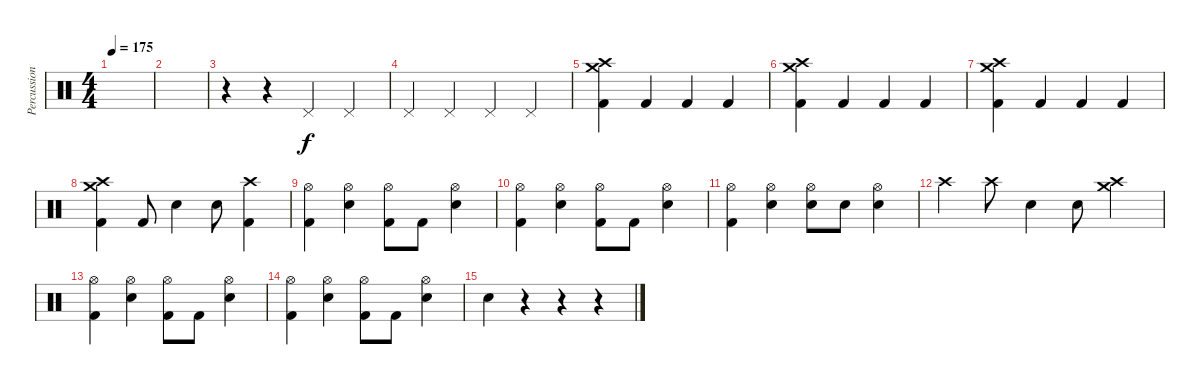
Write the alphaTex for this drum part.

\track ("Percussion" "Percussion") {instrument percussion}
\staff {score}
\articulation defaults
\ts (4 4)
\tempo 175
\clef neutral
\ks c
|
|
r.4 r.4 "Pedal Hi-Hat (hit)".4 "Pedal Hi-Hat (hit)".4 |
"Pedal Hi-Hat (hit)".4 "Pedal Hi-Hat (hit)".4 "Pedal Hi-Hat (hit)".4 "Pedal Hi-Hat (hit)".4 |
("Crash high (hit)" "Crash medium (hit)" "Kick (hit) 2").4 "Kick (hit) 2".4 "Kick (hit) 2".4 "Kick (hit) 2".4 |
("Crash medium (hit)" "Crash high (hit)" "Kick (hit) 2").4 "Kick (hit) 2".4 "Kick (hit) 2".4 "Kick (hit) 2".4 |
("Crash high (hit)" "Crash medium (hit)" "Kick (hit) 2").4 "Kick (hit) 2".4 "Kick (hit) 2".4 "Kick (hit) 2".4 |
("Crash high (hit)" "Crash medium (hit)" "Kick (hit) 2").4 "Kick (hit) 2".8 "Snare (hit) 2".4 "Snare (hit) 2".8 ("Crash high (hit)" "Kick (hit) 2").4 |
("Hi-Hat (open)" "Kick (hit) 2").4 ("Hi-Hat (open)" "Snare (hit) 2").4 ("Hi-Hat (open)" "Kick (hit) 2").8 "Kick (hit) 2".8 ("Hi-Hat (open)" "Snare (hit) 2").4 |
("Hi-Hat (open)" "Kick (hit) 2").4 ("Hi-Hat (open)" "Snare (hit) 2").4 ("Hi-Hat (open)" "Kick (hit) 2").8 "Kick (hit) 2".8 ("Hi-Hat (open)" "Snare (hit) 2").4 |
("Hi-Hat (open)" "Kick (hit) 2").4 ("Hi-Hat (open)" "Snare (hit) 2").4 ("Hi-Hat (open)" "Snare (hit) 2").8 "Snare (hit) 2".8 ("Hi-Hat (open)" "Snare (hit) 2").4 |
"Crash high (hit)".4 "Crash high (hit)".8 "Snare (hit) 2".4 "Snare (hit) 2".8 ("Crash high (hit)" "Crash medium (hit)").4 |
("Hi-Hat (open)" "Kick (hit) 2").4 ("Hi-Hat (open)" "Snare (hit) 2").4 ("Hi-Hat (open)" "Kick (hit) 2").8 "Kick (hit) 2".8 ("Hi-Hat (open)" "Snare (hit) 2").4 |
("Hi-Hat (open)" "Kick (hit) 2").4 ("Hi-Hat (open)" "Snare (hit) 2").4 ("Hi-Hat (open)" "Kick (hit) 2").8 "Kick (hit) 2".8 ("Hi-Hat (open)" "Snare (hit) 2").4 |
"Snare (hit) 2".4 r.4 r.4 r.4
